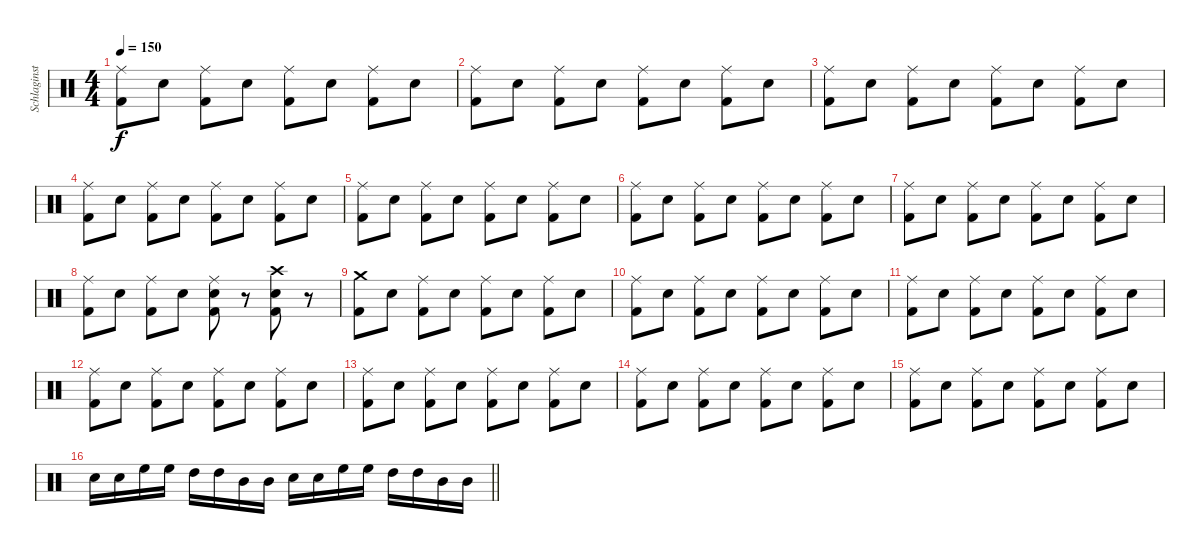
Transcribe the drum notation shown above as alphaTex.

\track ("Schlaginstrumente - Auswahl" "Schlaginst") {instrument percussion}
\staff {score}
\articulation defaults
\ts (4 4)
\tempo 150
\clef neutral
\ks c
("Ride (middle)" "Kick (hit) 2").8{dy f} "Electric Snare (hit)".8 ("Ride (middle)" "Kick (hit) 2").8 "Electric Snare (hit)".8 ("Ride (middle)" "Kick (hit) 2").8 "Electric Snare (hit)".8 ("Ride (middle)" "Kick (hit) 2").8 "Electric Snare (hit)".8 |
("Ride (middle)" "Kick (hit) 2").8 "Electric Snare (hit)".8 ("Ride (middle)" "Kick (hit) 2").8 "Electric Snare (hit)".8 ("Ride (middle)" "Kick (hit) 2").8 "Electric Snare (hit)".8 ("Ride (middle)" "Kick (hit) 2").8 "Electric Snare (hit)".8 |
("Ride (middle)" "Kick (hit) 2").8 "Electric Snare (hit)".8 ("Ride (middle)" "Kick (hit) 2").8 "Electric Snare (hit)".8 ("Ride (middle)" "Kick (hit) 2").8 "Electric Snare (hit)".8 ("Ride (middle)" "Kick (hit) 2").8 "Electric Snare (hit)".8 |
("Ride (middle)" "Kick (hit) 2").8 "Electric Snare (hit)".8 ("Ride (middle)" "Kick (hit) 2").8 "Electric Snare (hit)".8 ("Ride (middle)" "Kick (hit) 2").8 "Electric Snare (hit)".8 ("Ride (middle)" "Kick (hit) 2").8 "Electric Snare (hit)".8 |
("Ride (middle)" "Kick (hit) 2").8 "Electric Snare (hit)".8 ("Ride (middle)" "Kick (hit) 2").8 "Electric Snare (hit)".8 ("Ride (middle)" "Kick (hit) 2").8 "Electric Snare (hit)".8 ("Ride (middle)" "Kick (hit) 2").8 "Electric Snare (hit)".8 |
("Ride (middle)" "Kick (hit) 2").8 "Electric Snare (hit)".8 ("Ride (middle)" "Kick (hit) 2").8 "Electric Snare (hit)".8 ("Ride (middle)" "Kick (hit) 2").8 "Electric Snare (hit)".8 ("Ride (middle)" "Kick (hit) 2").8 "Electric Snare (hit)".8 |
("Ride (middle)" "Kick (hit) 2").8 "Electric Snare (hit)".8 ("Ride (middle)" "Kick (hit) 2").8 "Electric Snare (hit)".8 ("Ride (middle)" "Kick (hit) 2").8 "Electric Snare (hit)".8 ("Ride (middle)" "Kick (hit) 2").8 "Electric Snare (hit)".8 |
("Ride (middle)" "Kick (hit) 2").8 "Electric Snare (hit)".8 ("Ride (middle)" "Kick (hit) 2").8 "Electric Snare (hit)".8 ("Ride (middle)" "Electric Snare (hit)" "Kick (hit) 2").8 r.8 ("Crash high (hit)" "Electric Snare (hit)" "Kick (hit) 2").8 r.8 |
("Crash medium (hit)" "Kick (hit) 2").8 "Electric Snare (hit)".8 ("Ride (middle)" "Kick (hit) 2").8 "Electric Snare (hit)".8 ("Ride (middle)" "Kick (hit) 2").8 "Electric Snare (hit)".8 ("Ride (middle)" "Kick (hit) 2").8 "Electric Snare (hit)".8 |
("Ride (middle)" "Kick (hit) 2").8 "Electric Snare (hit)".8 ("Ride (middle)" "Kick (hit) 2").8 "Electric Snare (hit)".8 ("Ride (middle)" "Kick (hit) 2").8 "Electric Snare (hit)".8 ("Ride (middle)" "Kick (hit) 2").8 "Electric Snare (hit)".8 |
("Ride (middle)" "Kick (hit) 2").8 "Electric Snare (hit)".8 ("Ride (middle)" "Kick (hit) 2").8 "Electric Snare (hit)".8 ("Ride (middle)" "Kick (hit) 2").8 "Electric Snare (hit)".8 ("Ride (middle)" "Kick (hit) 2").8 "Electric Snare (hit)".8 |
("Ride (middle)" "Kick (hit) 2").8 "Electric Snare (hit)".8 ("Ride (middle)" "Kick (hit) 2").8 "Electric Snare (hit)".8 ("Ride (middle)" "Kick (hit) 2").8 "Electric Snare (hit)".8 ("Ride (middle)" "Kick (hit) 2").8 "Electric Snare (hit)".8 |
("Ride (middle)" "Kick (hit) 2").8 "Electric Snare (hit)".8 ("Ride (middle)" "Kick (hit) 2").8 "Electric Snare (hit)".8 ("Ride (middle)" "Kick (hit) 2").8 "Electric Snare (hit)".8 ("Ride (middle)" "Kick (hit) 2").8 "Electric Snare (hit)".8 |
("Ride (middle)" "Kick (hit) 2").8 "Electric Snare (hit)".8 ("Ride (middle)" "Kick (hit) 2").8 "Electric Snare (hit)".8 ("Ride (middle)" "Kick (hit) 2").8 "Electric Snare (hit)".8 ("Ride (middle)" "Kick (hit) 2").8 "Electric Snare (hit)".8 |
("Ride (middle)" "Kick (hit) 2").8 "Electric Snare (hit)".8 ("Ride (middle)" "Kick (hit) 2").8 "Electric Snare (hit)".8 ("Ride (middle)" "Kick (hit) 2").8 "Electric Snare (hit)".8 ("Ride (middle)" "Kick (hit) 2").8 "Electric Snare (hit)".8 |
\barLineRight lightlight "Snare (hit) 2".16 "Snare (hit) 2".16 "High Floor Tom (hit)".16 "High Floor Tom (hit)".16 "High Tom (hit)".16 "High Tom (hit)".16 "Mid Tom (hit)".16 "Mid Tom (hit)".16 "Snare (hit) 2".16 "Snare (hit) 2".16 "High Floor Tom (hit)".16 "High Floor Tom (hit)".16 "High Tom (hit)".16 "High Tom (hit)".16 "Mid Tom (hit)".16 "Mid Tom (hit)".16
